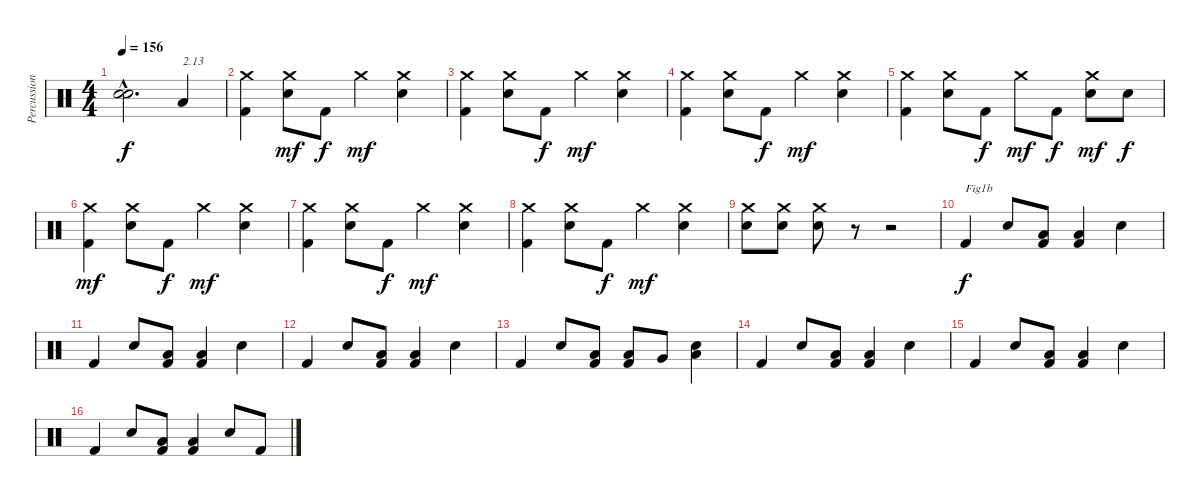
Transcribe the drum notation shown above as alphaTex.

\track ("Percussions" "Percussion") {instrument percussion}
\staff {score}
\articulation defaults
\ts (4 4)
\tempo 156
\clef neutral
\ks c
("Snare (hit)"{hac t} "Snare (hit)"{hac t}).2{d dy f} "Low Floor Tom (hit)".4{txt "2.13"} |
("Kick (hit) 2" "Crash medium (hit)").4 ("Electric Snare (hit)" "Crash medium (hit)").8{dy mf} "Kick (hit) 2".8{dy f} "Crash medium (hit)".4{dy mf} ("Electric Snare (hit)" "Crash medium (hit)").4 |
("Kick (hit) 2" "Crash medium (hit)").4 ("Electric Snare (hit)" "Crash medium (hit)").8 "Kick (hit) 2".8{dy f} "Crash medium (hit)".4{dy mf} ("Electric Snare (hit)" "Crash medium (hit)").4 |
("Kick (hit) 2" "Crash medium (hit)").4 ("Electric Snare (hit)" "Crash medium (hit)").8 "Kick (hit) 2".8{dy f} "Crash medium (hit)".4{dy mf} ("Electric Snare (hit)" "Crash medium (hit)").4 |
("Kick (hit) 2" "Crash medium (hit)").4 ("Electric Snare (hit)" "Crash medium (hit)").8 "Kick (hit) 2".8{dy f} "Crash medium (hit)".8{dy mf} "Kick (hit) 2".8{dy f} ("Electric Snare (hit)" "Crash medium (hit)").8{dy mf} "Electric Snare (hit)".8{dy f} |
("Kick (hit) 2" "Crash medium (hit)").4{dy mf} ("Electric Snare (hit)" "Crash medium (hit)").8 "Kick (hit) 2".8{dy f} "Crash medium (hit)".4{dy mf} ("Electric Snare (hit)" "Crash medium (hit)").4 |
("Kick (hit) 2" "Crash medium (hit)").4 ("Electric Snare (hit)" "Crash medium (hit)").8 "Kick (hit) 2".8{dy f} "Crash medium (hit)".4{dy mf} ("Electric Snare (hit)" "Crash medium (hit)").4 |
("Kick (hit) 2" "Crash medium (hit)").4 ("Electric Snare (hit)" "Crash medium (hit)").8 "Kick (hit) 2".8{dy f} "Crash medium (hit)".4{dy mf} ("Electric Snare (hit)" "Crash medium (hit)").4 |
("Electric Snare (hit)" "Crash medium (hit)").8 ("Electric Snare (hit)" "Crash medium (hit)").8 ("Electric Snare (hit)" "Crash medium (hit)").8 r.8 r.2 |
"Kick (hit) 2".4{txt "Fig1b" dy f} "Electric Snare (hit)".8 ("Kick (hit) 2" "Low Floor Tom (hit)").8 ("Kick (hit) 2" "Low Floor Tom (hit)").4 "Electric Snare (hit)".4 |
"Kick (hit) 2".4 "Electric Snare (hit)".8 ("Kick (hit) 2" "Low Floor Tom (hit)").8 ("Kick (hit) 2" "Low Floor Tom (hit)").4 "Electric Snare (hit)".4 |
"Kick (hit) 2".4 "Electric Snare (hit)".8 ("Kick (hit) 2" "Low Floor Tom (hit)").8 ("Kick (hit) 2" "Low Floor Tom (hit)").4 "Electric Snare (hit)".4 |
"Kick (hit) 2".4 "Electric Snare (hit)".8 ("Kick (hit) 2" "Low Floor Tom (hit)").8 ("Kick (hit) 2" "Low Floor Tom (hit)").8 "Very Low Tom (hit)".8 ("Electric Snare (hit)" "Low Floor Tom (hit)").4 |
"Kick (hit) 2".4 "Electric Snare (hit)".8 ("Kick (hit) 2" "Low Floor Tom (hit)").8 ("Kick (hit) 2" "Low Floor Tom (hit)").4 "Electric Snare (hit)".4 |
"Kick (hit) 2".4 "Electric Snare (hit)".8 ("Kick (hit) 2" "Low Floor Tom (hit)").8 ("Kick (hit) 2" "Low Floor Tom (hit)").4 "Electric Snare (hit)".4 |
"Kick (hit) 2".4 "Electric Snare (hit)".8 ("Kick (hit) 2" "Low Floor Tom (hit)").8 ("Kick (hit) 2" "Low Floor Tom (hit)").4 "Electric Snare (hit)".8 "Kick (hit) 2".8
